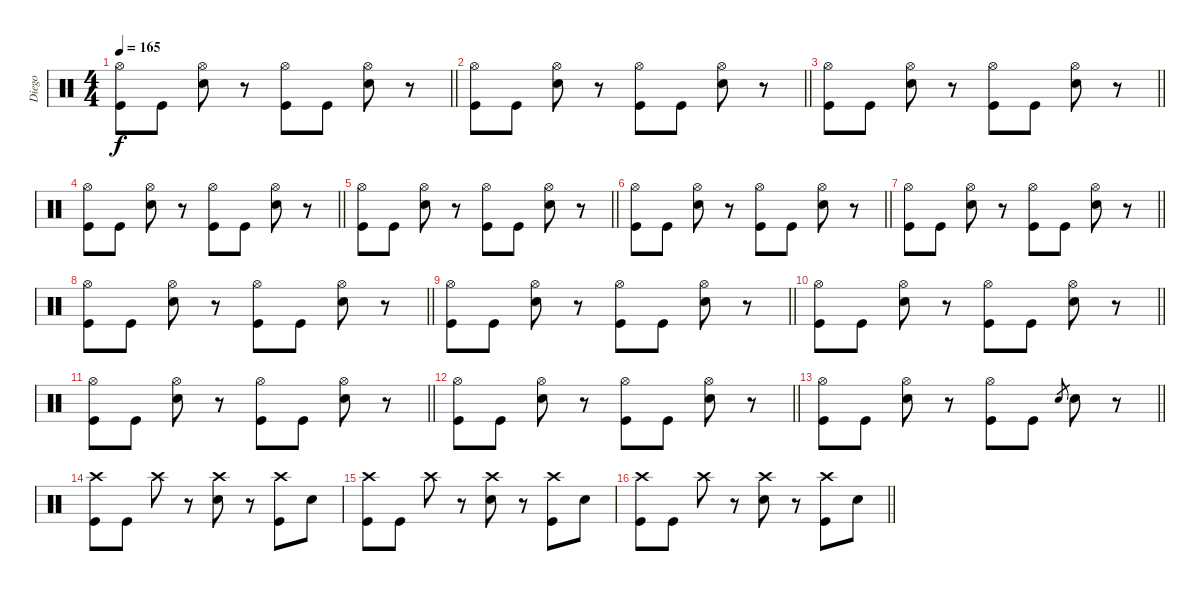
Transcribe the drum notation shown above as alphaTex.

\track ("Diego" "Diego") {instrument percussion}
\staff {score}
\articulation defaults
\ts (4 4)
\tempo 165
\clef neutral
\barLineRight lightlight
\ks c
("Hi-Hat (open)" "Kick (hit)").8{dy f} "Kick (hit)".8 ("Hi-Hat (open)" "Snare (hit) 2").8 r.8 ("Hi-Hat (open)" "Kick (hit)").8 "Kick (hit)".8 ("Hi-Hat (open)" "Snare (hit) 2").8 r.8 |
\barLineRight lightlight
("Hi-Hat (open)" "Kick (hit)").8 "Kick (hit)".8 ("Hi-Hat (open)" "Snare (hit) 2").8 r.8 ("Hi-Hat (open)" "Kick (hit)").8 "Kick (hit)".8 ("Hi-Hat (open)" "Snare (hit) 2").8 r.8 |
\barLineRight lightlight
("Hi-Hat (open)" "Kick (hit)").8 "Kick (hit)".8 ("Hi-Hat (open)" "Snare (hit) 2").8 r.8 ("Hi-Hat (open)" "Kick (hit)").8 "Kick (hit)".8 ("Hi-Hat (open)" "Snare (hit) 2").8 r.8 |
\barLineRight lightlight
("Hi-Hat (open)" "Kick (hit)").8 "Kick (hit)".8 ("Hi-Hat (open)" "Snare (hit) 2").8 r.8 ("Hi-Hat (open)" "Kick (hit)").8 "Kick (hit)".8 ("Hi-Hat (open)" "Snare (hit) 2").8 r.8 |
\barLineRight lightlight
("Hi-Hat (open)" "Kick (hit)").8 "Kick (hit)".8 ("Hi-Hat (open)" "Snare (hit) 2").8 r.8 ("Hi-Hat (open)" "Kick (hit)").8 "Kick (hit)".8 ("Hi-Hat (open)" "Snare (hit) 2").8 r.8 |
\barLineRight lightlight
("Hi-Hat (open)" "Kick (hit)").8 "Kick (hit)".8 ("Hi-Hat (open)" "Snare (hit) 2").8 r.8 ("Hi-Hat (open)" "Kick (hit)").8 "Kick (hit)".8 ("Hi-Hat (open)" "Snare (hit) 2").8 r.8 |
\barLineRight lightlight
("Hi-Hat (open)" "Kick (hit)").8 "Kick (hit)".8 ("Hi-Hat (open)" "Snare (hit) 2").8 r.8 ("Hi-Hat (open)" "Kick (hit)").8 "Kick (hit)".8 ("Hi-Hat (open)" "Snare (hit) 2").8 r.8 |
\barLineRight lightlight
("Hi-Hat (open)" "Kick (hit)").8 "Kick (hit)".8 ("Hi-Hat (open)" "Snare (hit) 2").8 r.8 ("Hi-Hat (open)" "Kick (hit)").8 "Kick (hit)".8 ("Hi-Hat (open)" "Snare (hit) 2").8 r.8 |
\barLineRight lightlight
("Hi-Hat (open)" "Kick (hit)").8 "Kick (hit)".8 ("Hi-Hat (open)" "Snare (hit) 2").8 r.8 ("Hi-Hat (open)" "Kick (hit)").8 "Kick (hit)".8 ("Hi-Hat (open)" "Snare (hit) 2").8 r.8 |
\barLineRight lightlight
("Hi-Hat (open)" "Kick (hit)").8 "Kick (hit)".8 ("Hi-Hat (open)" "Snare (hit) 2").8 r.8 ("Hi-Hat (open)" "Kick (hit)").8 "Kick (hit)".8 ("Hi-Hat (open)" "Snare (hit) 2").8 r.8 |
\barLineRight lightlight
("Hi-Hat (open)" "Kick (hit)").8 "Kick (hit)".8 ("Hi-Hat (open)" "Snare (hit) 2").8 r.8 ("Hi-Hat (open)" "Kick (hit)").8 "Kick (hit)".8 ("Hi-Hat (open)" "Snare (hit) 2").8 r.8 |
\barLineRight lightlight
("Hi-Hat (open)" "Kick (hit)").8 "Kick (hit)".8 ("Hi-Hat (open)" "Snare (hit) 2").8 r.8 ("Hi-Hat (open)" "Kick (hit)").8 "Kick (hit)".8 ("Hi-Hat (open)" "Snare (hit) 2").8 r.8 |
\barLineRight lightlight
("Hi-Hat (open)" "Kick (hit)").8 "Kick (hit)".8 ("Hi-Hat (open)" "Snare (hit) 2").8 r.8 ("Hi-Hat (open)" "Kick (hit)").8 "Kick (hit)".8 "Snare (hit) 2".8{gr} "Snare (hit) 2".8 r.8 |
\section ("" "")
("Crash high (hit)" "Kick (hit)").8 "Kick (hit)".8 "Crash high (hit)".8 r.8 ("Crash high (hit)" "Snare (hit) 2").8 r.8 ("Crash high (hit)" "Kick (hit)").8 "Snare (hit) 2".8 |
("Crash high (hit)" "Kick (hit)").8 "Kick (hit)".8 "Crash high (hit)".8 r.8 ("Crash high (hit)" "Snare (hit) 2").8 r.8 ("Crash high (hit)" "Kick (hit)").8 "Snare (hit) 2".8 |
\barLineRight lightlight
("Crash high (hit)" "Kick (hit)").8 "Kick (hit)".8 "Crash high (hit)".8 r.8 ("Crash high (hit)" "Snare (hit) 2").8 r.8 ("Crash high (hit)" "Kick (hit)").8 "Snare (hit) 2".8
